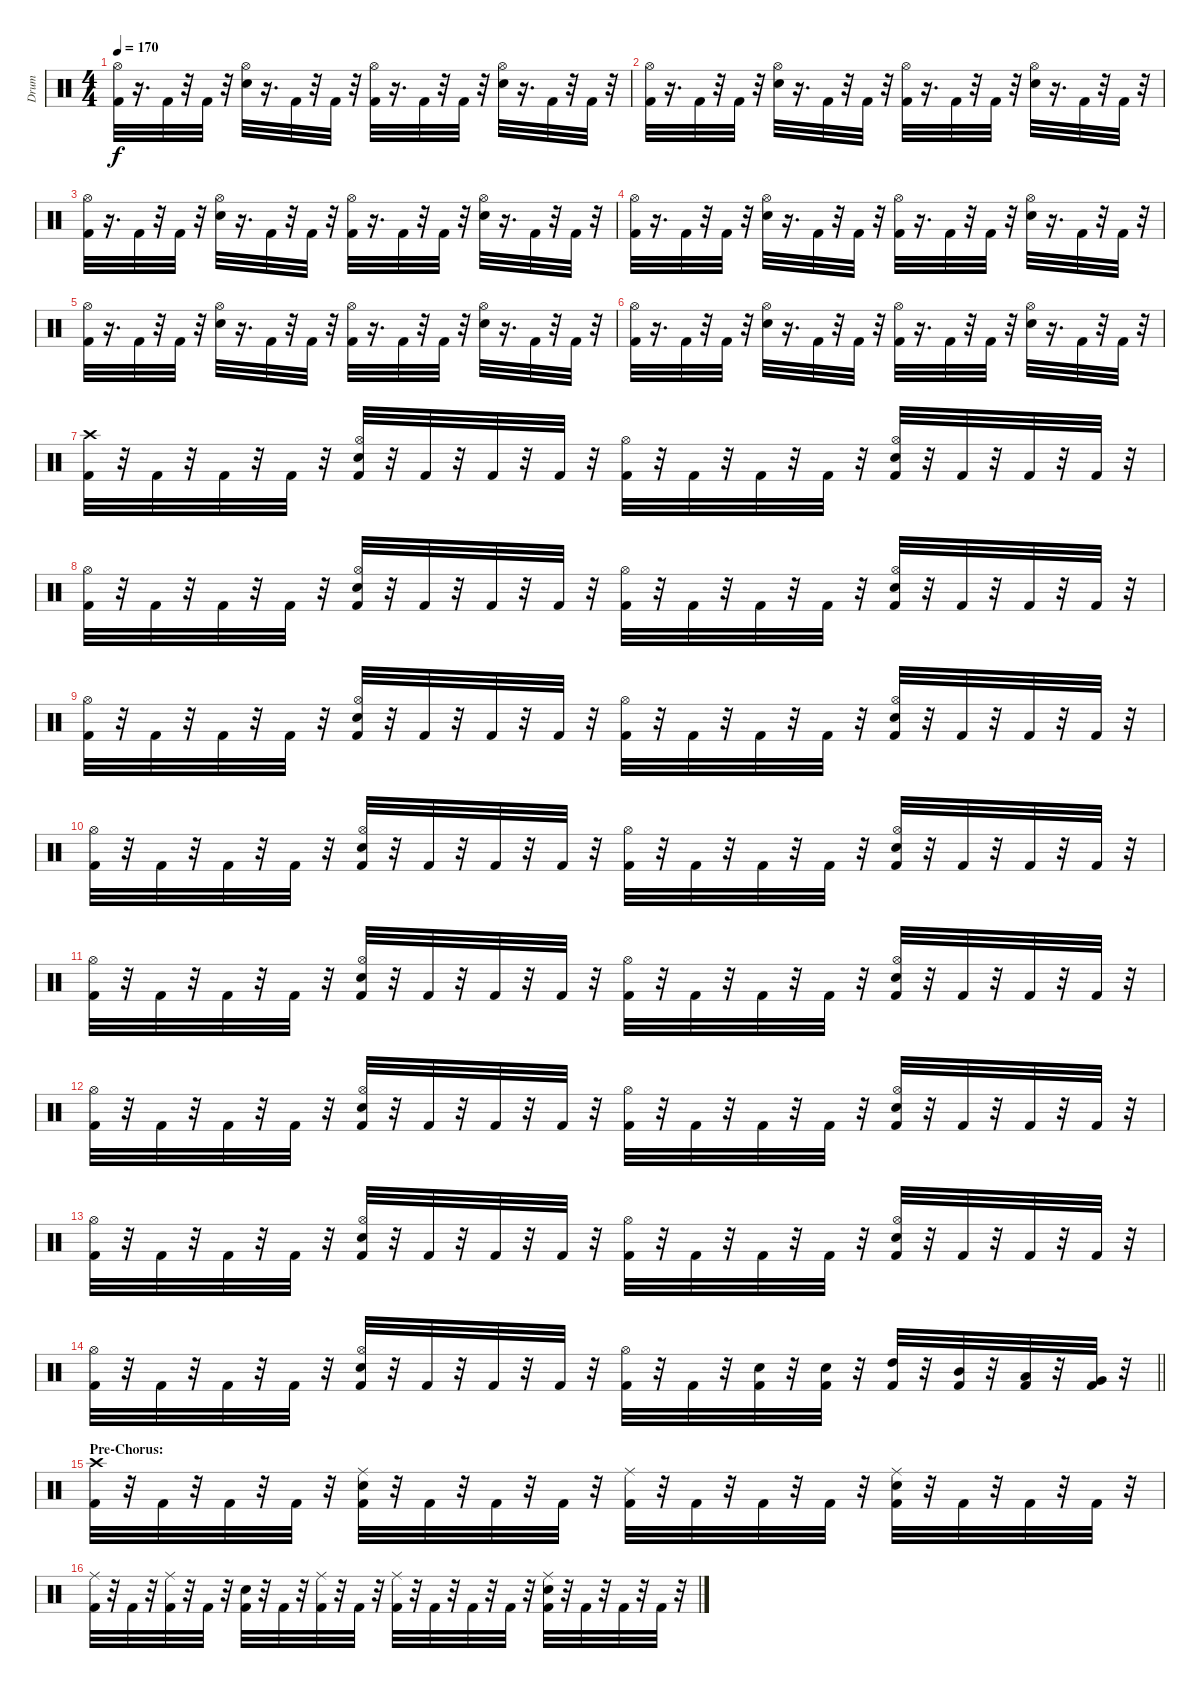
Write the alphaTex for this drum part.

\track ("Drum" "Drum") {instrument percussion}
\staff {score}
\articulation defaults
\ts (4 4)
\tempo 170
\clef neutral
\ks c
("Kick (hit) 2" "Hi-Hat (open)").32{dy f} r.16{d} "Kick (hit) 2".32 r.32 "Kick (hit) 2".32 r.32 ("Snare (hit) 2" "Hi-Hat (open)").32 r.16{d} "Kick (hit) 2".32 r.32 "Kick (hit) 2".32 r.32 ("Kick (hit) 2" "Hi-Hat (open)").32 r.16{d} "Kick (hit) 2".32 r.32 "Kick (hit) 2".32 r.32 ("Snare (hit) 2" "Hi-Hat (open)").32 r.16{d} "Kick (hit) 2".32 r.32 "Kick (hit) 2".32 r.32 |
("Kick (hit) 2" "Hi-Hat (open)").32 r.16{d} "Kick (hit) 2".32 r.32 "Kick (hit) 2".32 r.32 ("Snare (hit) 2" "Hi-Hat (open)").32 r.16{d} "Kick (hit) 2".32 r.32 "Kick (hit) 2".32 r.32 ("Kick (hit) 2" "Hi-Hat (open)").32 r.16{d} "Kick (hit) 2".32 r.32 "Kick (hit) 2".32 r.32 ("Snare (hit) 2" "Hi-Hat (open)").32 r.16{d} "Kick (hit) 2".32 r.32 "Kick (hit) 2".32 r.32 |
("Hi-Hat (open)" "Kick (hit) 2").32 r.16{d} "Kick (hit) 2".32 r.32 "Kick (hit) 2".32 r.32 ("Snare (hit) 2" "Hi-Hat (open)").32 r.16{d} "Kick (hit) 2".32 r.32 "Kick (hit) 2".32 r.32 ("Kick (hit) 2" "Hi-Hat (open)").32 r.16{d} "Kick (hit) 2".32 r.32 "Kick (hit) 2".32 r.32 ("Snare (hit) 2" "Hi-Hat (open)").32 r.16{d} "Kick (hit) 2".32 r.32 "Kick (hit) 2".32 r.32 |
("Kick (hit) 2" "Hi-Hat (open)").32 r.16{d} "Kick (hit) 2".32 r.32 "Kick (hit) 2".32 r.32 ("Snare (hit) 2" "Hi-Hat (open)").32 r.16{d} "Kick (hit) 2".32 r.32 "Kick (hit) 2".32 r.32 ("Kick (hit) 2" "Hi-Hat (open)").32 r.16{d} "Kick (hit) 2".32 r.32 "Kick (hit) 2".32 r.32 ("Snare (hit) 2" "Hi-Hat (open)").32 r.16{d} "Kick (hit) 2".32 r.32 "Kick (hit) 2".32 r.32 |
("Hi-Hat (open)" "Kick (hit) 2").32 r.16{d} "Kick (hit) 2".32 r.32 "Kick (hit) 2".32 r.32 ("Snare (hit) 2" "Hi-Hat (open)").32 r.16{d} "Kick (hit) 2".32 r.32 "Kick (hit) 2".32 r.32 ("Kick (hit) 2" "Hi-Hat (open)").32 r.16{d} "Kick (hit) 2".32 r.32 "Kick (hit) 2".32 r.32 ("Snare (hit) 2" "Hi-Hat (open)").32 r.16{d} "Kick (hit) 2".32 r.32 "Kick (hit) 2".32 r.32 |
("Kick (hit) 2" "Hi-Hat (open)").32 r.16{d} "Kick (hit) 2".32 r.32 "Kick (hit) 2".32 r.32 ("Snare (hit) 2" "Hi-Hat (open)").32 r.16{d} "Kick (hit) 2".32 r.32 "Kick (hit) 2".32 r.32 ("Kick (hit) 2" "Hi-Hat (open)").32 r.16{d} "Kick (hit) 2".32 r.32 "Kick (hit) 2".32 r.32 ("Snare (hit) 2" "Hi-Hat (open)").32 r.16{d} "Kick (hit) 2".32 r.32 "Kick (hit) 2".32 r.32 |
("Crash high (hit)" "Kick (hit) 2").32 r.32 "Kick (hit) 2".32 r.32 "Kick (hit) 2".32 r.32 "Kick (hit) 2".32 r.32 ("Snare (hit) 2" "Hi-Hat (open)" "Kick (hit) 2").32 r.32 "Kick (hit) 2".32 r.32 "Kick (hit) 2".32 r.32 "Kick (hit) 2".32 r.32 ("Hi-Hat (open)" "Kick (hit) 2").32 r.32 "Kick (hit) 2".32 r.32 "Kick (hit) 2".32 r.32 "Kick (hit) 2".32 r.32 ("Snare (hit) 2" "Hi-Hat (open)" "Kick (hit) 2").32 r.32 "Kick (hit) 2".32 r.32 "Kick (hit) 2".32 r.32 "Kick (hit) 2".32 r.32 |
("Hi-Hat (open)" "Kick (hit) 2").32 r.32 "Kick (hit) 2".32 r.32 "Kick (hit) 2".32 r.32 "Kick (hit) 2".32 r.32 ("Snare (hit) 2" "Hi-Hat (open)" "Kick (hit) 2").32 r.32 "Kick (hit) 2".32 r.32 "Kick (hit) 2".32 r.32 "Kick (hit) 2".32 r.32 ("Hi-Hat (open)" "Kick (hit) 2").32 r.32 "Kick (hit) 2".32 r.32 "Kick (hit) 2".32 r.32 "Kick (hit) 2".32 r.32 ("Hi-Hat (open)" "Snare (hit) 2" "Kick (hit) 2").32 r.32 "Kick (hit) 2".32 r.32 "Kick (hit) 2".32 r.32 "Kick (hit) 2".32 r.32 |
("Hi-Hat (open)" "Kick (hit) 2").32 r.32 "Kick (hit) 2".32 r.32 "Kick (hit) 2".32 r.32 "Kick (hit) 2".32 r.32 ("Hi-Hat (open)" "Snare (hit) 2" "Kick (hit) 2").32 r.32 "Kick (hit) 2".32 r.32 "Kick (hit) 2".32 r.32 "Kick (hit) 2".32 r.32 ("Hi-Hat (open)" "Kick (hit) 2").32 r.32 "Kick (hit) 2".32 r.32 "Kick (hit) 2".32 r.32 "Kick (hit) 2".32 r.32 ("Hi-Hat (open)" "Snare (hit) 2" "Kick (hit) 2").32 r.32 "Kick (hit) 2".32 r.32 "Kick (hit) 2".32 r.32 "Kick (hit) 2".32 r.32 |
("Hi-Hat (open)" "Kick (hit) 2").32 r.32 "Kick (hit) 2".32 r.32 "Kick (hit) 2".32 r.32 "Kick (hit) 2".32 r.32 ("Hi-Hat (open)" "Snare (hit) 2" "Kick (hit) 2").32 r.32 "Kick (hit) 2".32 r.32 "Kick (hit) 2".32 r.32 "Kick (hit) 2".32 r.32 ("Hi-Hat (open)" "Kick (hit) 2").32 r.32 "Kick (hit) 2".32 r.32 "Kick (hit) 2".32 r.32 "Kick (hit) 2".32 r.32 ("Snare (hit) 2" "Hi-Hat (open)" "Kick (hit) 2").32 r.32 "Kick (hit) 2".32 r.32 "Kick (hit) 2".32 r.32 "Kick (hit) 2".32 r.32 |
("Hi-Hat (open)" "Kick (hit) 2").32 r.32 "Kick (hit) 2".32 r.32 "Kick (hit) 2".32 r.32 "Kick (hit) 2".32 r.32 ("Hi-Hat (open)" "Snare (hit) 2" "Kick (hit) 2").32 r.32 "Kick (hit) 2".32 r.32 "Kick (hit) 2".32 r.32 "Kick (hit) 2".32 r.32 ("Hi-Hat (open)" "Kick (hit) 2").32 r.32 "Kick (hit) 2".32 r.32 "Kick (hit) 2".32 r.32 "Kick (hit) 2".32 r.32 ("Hi-Hat (open)" "Snare (hit) 2" "Kick (hit) 2").32 r.32 "Kick (hit) 2".32 r.32 "Kick (hit) 2".32 r.32 "Kick (hit) 2".32 r.32 |
("Hi-Hat (open)" "Kick (hit) 2").32 r.32 "Kick (hit) 2".32 r.32 "Kick (hit) 2".32 r.32 "Kick (hit) 2".32 r.32 ("Hi-Hat (open)" "Snare (hit) 2" "Kick (hit) 2").32 r.32 "Kick (hit) 2".32 r.32 "Kick (hit) 2".32 r.32 "Kick (hit) 2".32 r.32 ("Hi-Hat (open)" "Kick (hit) 2").32 r.32 "Kick (hit) 2".32 r.32 "Kick (hit) 2".32 r.32 "Kick (hit) 2".32 r.32 ("Snare (hit) 2" "Hi-Hat (open)" "Kick (hit) 2").32 r.32 "Kick (hit) 2".32 r.32 "Kick (hit) 2".32 r.32 "Kick (hit) 2".32 r.32 |
("Hi-Hat (open)" "Kick (hit) 2").32 r.32 "Kick (hit) 2".32 r.32 "Kick (hit) 2".32 r.32 "Kick (hit) 2".32 r.32 ("Hi-Hat (open)" "Snare (hit) 2" "Kick (hit) 2").32 r.32 "Kick (hit) 2".32 r.32 "Kick (hit) 2".32 r.32 "Kick (hit) 2".32 r.32 ("Hi-Hat (open)" "Kick (hit) 2").32 r.32 "Kick (hit) 2".32 r.32 "Kick (hit) 2".32 r.32 "Kick (hit) 2".32 r.32 ("Hi-Hat (open)" "Snare (hit) 2" "Kick (hit) 2").32 r.32 "Kick (hit) 2".32 r.32 "Kick (hit) 2".32 r.32 "Kick (hit) 2".32 r.32 |
\barLineRight lightlight
("Hi-Hat (open)" "Kick (hit) 2").32 r.32 "Kick (hit) 2".32 r.32 "Kick (hit) 2".32 r.32 "Kick (hit) 2".32 r.32 ("Hi-Hat (open)" "Snare (hit) 2" "Kick (hit) 2").32 r.32 "Kick (hit) 2".32 r.32 "Kick (hit) 2".32 r.32 "Kick (hit) 2".32 r.32 ("Hi-Hat (open)" "Kick (hit) 2").32 r.32 "Kick (hit) 2".32 r.32 ("Snare (hit) 2" "Kick (hit) 2").32 r.32 ("Snare (hit) 2" "Kick (hit) 2").32 r.32 ("High Tom (hit)" "Kick (hit) 2").32 r.32 ("Mid Tom (hit)" "Kick (hit) 2").32 r.32 ("Low Tom (hit)" "Kick (hit) 2").32 r.32 ("Very Low Tom (hit)" "Kick (hit) 2").32 r.32 |
\section ("" "Pre-Chorus:")
("Kick (hit) 2" "Crash high (hit)").32 r.32 "Kick (hit) 2".32 r.32 "Kick (hit) 2".32 r.32 "Kick (hit) 2".32 r.32 ("Ride (middle)" "Snare (hit) 2" "Kick (hit) 2").32 r.32 "Kick (hit) 2".32 r.32 "Kick (hit) 2".32 r.32 "Kick (hit) 2".32 r.32 ("Ride (middle)" "Kick (hit) 2").32 r.32 "Kick (hit) 2".32 r.32 "Kick (hit) 2".32 r.32 "Kick (hit) 2".32 r.32 ("Ride (middle)" "Snare (hit) 2" "Kick (hit) 2").32 r.32 "Kick (hit) 2".32 r.32 "Kick (hit) 2".32 r.32 "Kick (hit) 2".32 r.32 |
("Ride (middle)" "Kick (hit) 2").32 r.32 "Kick (hit) 2".32 r.32 ("Ride (middle)" "Kick (hit) 2").32 r.32 "Kick (hit) 2".32 r.32 ("Snare (hit) 2" "Kick (hit) 2").32 r.32 "Kick (hit) 2".32 r.32 ("Ride (middle)" "Kick (hit) 2").32 r.32 "Kick (hit) 2".32 r.32 ("Ride (middle)" "Kick (hit) 2").32 r.32 "Kick (hit) 2".32 r.32 "Kick (hit) 2".32 r.32 "Kick (hit) 2".32 r.32 ("Ride (middle)" "Snare (hit) 2" "Kick (hit) 2").32 r.32 "Kick (hit) 2".32 r.32 "Kick (hit) 2".32 r.32 "Kick (hit) 2".32 r.32
